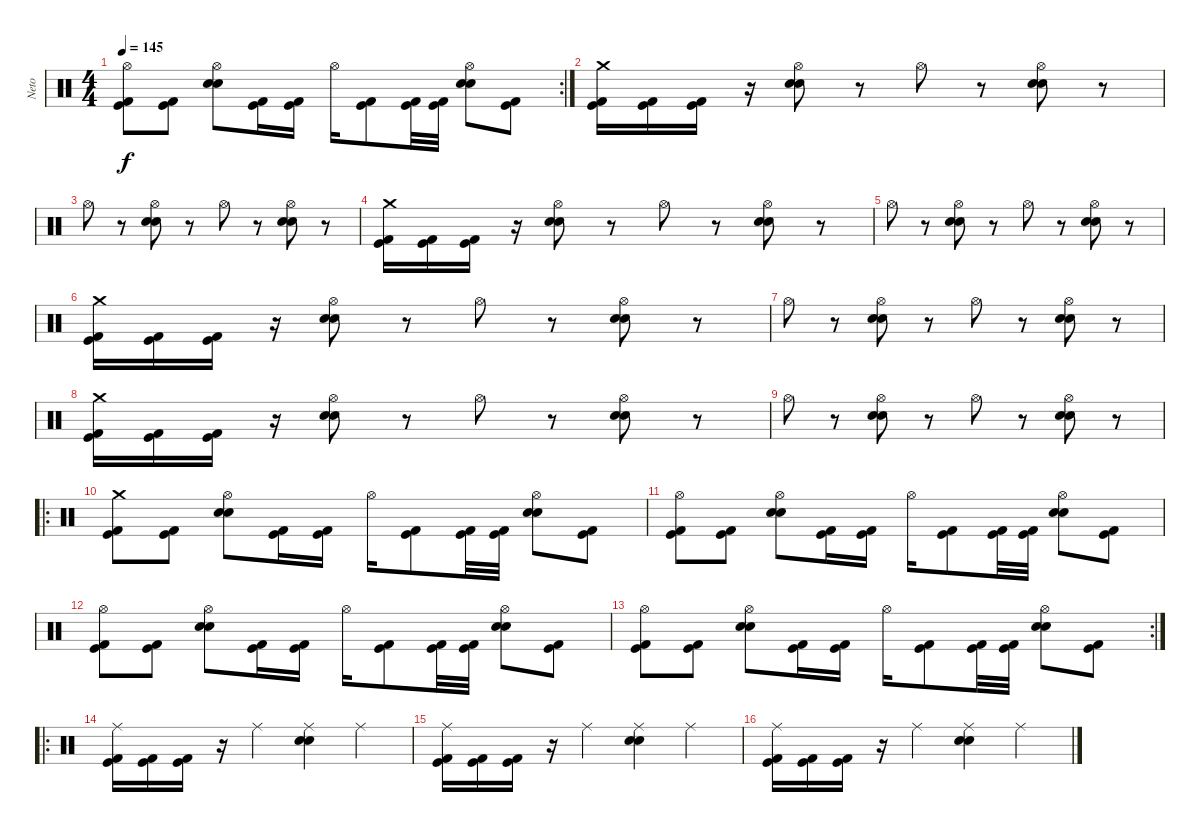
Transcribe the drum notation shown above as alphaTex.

\track ("Neto" "Neto") {instrument percussion}
\staff {score}
\articulation defaults
\rc 2
\ts (4 4)
\tempo 145
\clef neutral
\ks c
("Hi-Hat (open)" "Kick (hit)" "Kick (hit) 2").8{dy f} ("Kick (hit)" "Kick (hit) 2").8 ("Hi-Hat (open)" "Snare (hit) 2" "Snare (hit) 2").8 ("Kick (hit)" "Kick (hit) 2").16 ("Kick (hit)" "Kick (hit) 2").16 "Hi-Hat (open)".16 ("Kick (hit)" "Kick (hit) 2").8 ("Kick (hit)" "Kick (hit) 2").32 ("Kick (hit)" "Kick (hit) 2").32 ("Hi-Hat (open)" "Snare (hit) 2" "Snare (hit) 2").8 ("Kick (hit)" "Kick (hit) 2").8 |
("Crash medium (hit)" "Kick (hit)" "Kick (hit) 2").16 ("Kick (hit)" "Kick (hit) 2").16 ("Kick (hit)" "Kick (hit) 2").16 r.16 ("Hi-Hat (open)" "Snare (hit) 2" "Snare (hit) 2").8 r.8 "Hi-Hat (open)".8 r.8 ("Hi-Hat (open)" "Snare (hit) 2" "Snare (hit) 2").8 r.8 |
"Hi-Hat (open)".8 r.8 ("Hi-Hat (open)" "Snare (hit) 2" "Snare (hit) 2").8 r.8 "Hi-Hat (open)".8 r.8 ("Hi-Hat (open)" "Snare (hit) 2" "Snare (hit) 2").8 r.8 |
("Crash medium (hit)" "Kick (hit)" "Kick (hit) 2").16 ("Kick (hit)" "Kick (hit) 2").16 ("Kick (hit)" "Kick (hit) 2").16 r.16 ("Hi-Hat (open)" "Snare (hit) 2" "Snare (hit) 2").8 r.8 "Hi-Hat (open)".8 r.8 ("Hi-Hat (open)" "Snare (hit) 2" "Snare (hit) 2").8 r.8 |
"Hi-Hat (open)".8 r.8 ("Hi-Hat (open)" "Snare (hit) 2" "Snare (hit) 2").8 r.8 "Hi-Hat (open)".8 r.8 ("Hi-Hat (open)" "Snare (hit) 2" "Snare (hit) 2").8 r.8 |
("Crash medium (hit)" "Kick (hit)" "Kick (hit) 2").16 ("Kick (hit)" "Kick (hit) 2").16 ("Kick (hit)" "Kick (hit) 2").16 r.16 ("Hi-Hat (open)" "Snare (hit) 2" "Snare (hit) 2").8 r.8 "Hi-Hat (open)".8 r.8 ("Hi-Hat (open)" "Snare (hit) 2" "Snare (hit) 2").8 r.8 |
"Hi-Hat (open)".8 r.8 ("Hi-Hat (open)" "Snare (hit) 2" "Snare (hit) 2").8 r.8 "Hi-Hat (open)".8 r.8 ("Hi-Hat (open)" "Snare (hit) 2" "Snare (hit) 2").8 r.8 |
("Crash medium (hit)" "Kick (hit)" "Kick (hit) 2").16 ("Kick (hit)" "Kick (hit) 2").16 ("Kick (hit)" "Kick (hit) 2").16 r.16 ("Hi-Hat (open)" "Snare (hit) 2" "Snare (hit) 2").8 r.8 "Hi-Hat (open)".8 r.8 ("Hi-Hat (open)" "Snare (hit) 2" "Snare (hit) 2").8 r.8 |
"Hi-Hat (open)".8 r.8 ("Hi-Hat (open)" "Snare (hit) 2" "Snare (hit) 2").8 r.8 "Hi-Hat (open)".8 r.8 ("Hi-Hat (open)" "Snare (hit) 2" "Snare (hit) 2").8 r.8 |
\ro
("Crash medium (hit)" "Kick (hit)" "Kick (hit) 2").8 ("Kick (hit)" "Kick (hit) 2").8 ("Hi-Hat (open)" "Snare (hit) 2" "Snare (hit) 2").8 ("Kick (hit)" "Kick (hit) 2").16 ("Kick (hit)" "Kick (hit) 2").16 "Hi-Hat (open)".16 ("Kick (hit)" "Kick (hit) 2").8 ("Kick (hit)" "Kick (hit) 2").32 ("Kick (hit)" "Kick (hit) 2").32 ("Hi-Hat (open)" "Snare (hit) 2" "Snare (hit) 2").8 ("Kick (hit)" "Kick (hit) 2").8 |
("Hi-Hat (open)" "Kick (hit)" "Kick (hit) 2").8 ("Kick (hit)" "Kick (hit) 2").8 ("Hi-Hat (open)" "Snare (hit) 2" "Snare (hit) 2").8 ("Kick (hit)" "Kick (hit) 2").16 ("Kick (hit)" "Kick (hit) 2").16 "Hi-Hat (open)".16 ("Kick (hit)" "Kick (hit) 2").8 ("Kick (hit)" "Kick (hit) 2").32 ("Kick (hit)" "Kick (hit) 2").32 ("Hi-Hat (open)" "Snare (hit) 2" "Snare (hit) 2").8 ("Kick (hit)" "Kick (hit) 2").8 |
("Hi-Hat (open)" "Kick (hit)" "Kick (hit) 2").8 ("Kick (hit)" "Kick (hit) 2").8 ("Hi-Hat (open)" "Snare (hit) 2" "Snare (hit) 2").8 ("Kick (hit)" "Kick (hit) 2").16 ("Kick (hit)" "Kick (hit) 2").16 "Hi-Hat (open)".16 ("Kick (hit)" "Kick (hit) 2").8 ("Kick (hit)" "Kick (hit) 2").32 ("Kick (hit)" "Kick (hit) 2").32 ("Hi-Hat (open)" "Snare (hit) 2" "Snare (hit) 2").8 ("Kick (hit)" "Kick (hit) 2").8 |
\rc 2
("Hi-Hat (open)" "Kick (hit)" "Kick (hit) 2").8 ("Kick (hit)" "Kick (hit) 2").8 ("Hi-Hat (open)" "Snare (hit) 2" "Snare (hit) 2").8 ("Kick (hit)" "Kick (hit) 2").16 ("Kick (hit)" "Kick (hit) 2").16 "Hi-Hat (open)".16 ("Kick (hit)" "Kick (hit) 2").8 ("Kick (hit)" "Kick (hit) 2").32 ("Kick (hit)" "Kick (hit) 2").32 ("Hi-Hat (open)" "Snare (hit) 2" "Snare (hit) 2").8 ("Kick (hit)" "Kick (hit) 2").8 |
\ro
("Ride (middle)" "Kick (hit)" "Kick (hit) 2").16 ("Kick (hit)" "Kick (hit) 2").16 ("Kick (hit)" "Kick (hit) 2").16 r.16 "Ride (middle)".4 ("Ride (middle)" "Snare (hit) 2" "Snare (hit) 2").4 "Ride (middle)".4 |
("Ride (middle)" "Kick (hit)" "Kick (hit) 2").16 ("Kick (hit)" "Kick (hit) 2").16 ("Kick (hit)" "Kick (hit) 2").16 r.16 "Ride (middle)".4 ("Ride (middle)" "Snare (hit) 2" "Snare (hit) 2").4 "Ride (middle)".4 |
("Ride (middle)" "Kick (hit)" "Kick (hit) 2").16 ("Kick (hit)" "Kick (hit) 2").16 ("Kick (hit)" "Kick (hit) 2").16 r.16 "Ride (middle)".4 ("Ride (middle)" "Snare (hit) 2" "Snare (hit) 2").4 "Ride (middle)".4
